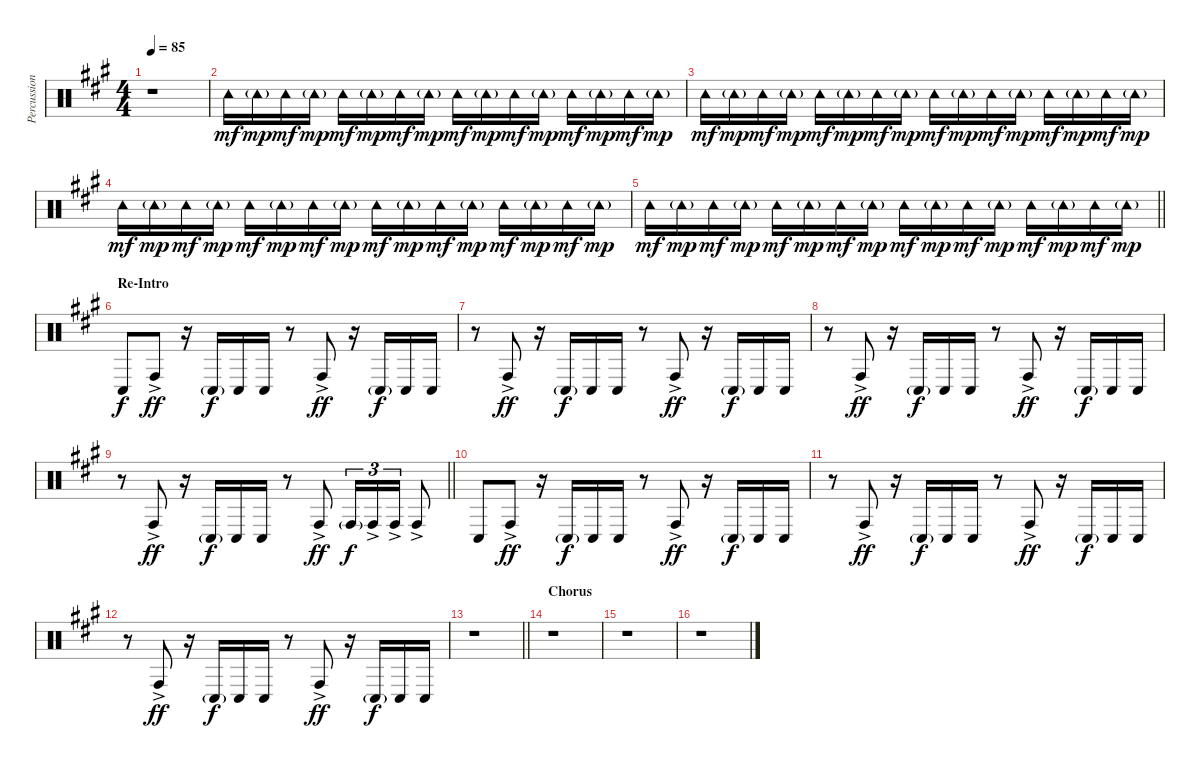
\track ("Percussion" "Percussion") {instrument percussion}
\staff {score}
\articulation defaults
\ts (4 4)
\tempo 85
\clef neutral
\ks a
r.1{dy mp} |
"Tambourine (hit)".16{dy mf} "Tambourine (hit)"{g}.16{dy mp} "Tambourine (hit)".16{dy mf} "Tambourine (hit)"{g}.16{dy mp} "Tambourine (hit)".16{dy mf} "Tambourine (hit)"{g}.16{dy mp} "Tambourine (hit)".16{dy mf} "Tambourine (hit)"{g}.16{dy mp} "Tambourine (hit)".16{dy mf} "Tambourine (hit)"{g}.16{dy mp} "Tambourine (hit)".16{dy mf} "Tambourine (hit)"{g}.16{dy mp} "Tambourine (hit)".16{dy mf} "Tambourine (hit)"{g}.16{dy mp} "Tambourine (hit)".16{dy mf} "Tambourine (hit)"{g}.16{dy mp} |
"Tambourine (hit)".16{dy mf} "Tambourine (hit)"{g}.16{dy mp} "Tambourine (hit)".16{dy mf} "Tambourine (hit)"{g}.16{dy mp} "Tambourine (hit)".16{dy mf} "Tambourine (hit)"{g}.16{dy mp} "Tambourine (hit)".16{dy mf} "Tambourine (hit)"{g}.16{dy mp} "Tambourine (hit)".16{dy mf} "Tambourine (hit)"{g}.16{dy mp} "Tambourine (hit)".16{dy mf} "Tambourine (hit)"{g}.16{dy mp} "Tambourine (hit)".16{dy mf} "Tambourine (hit)"{g}.16{dy mp} "Tambourine (hit)".16{dy mf} "Tambourine (hit)"{g}.16{dy mp} |
"Tambourine (hit)".16{dy mf} "Tambourine (hit)"{g}.16{dy mp} "Tambourine (hit)".16{dy mf} "Tambourine (hit)"{g}.16{dy mp} "Tambourine (hit)".16{dy mf} "Tambourine (hit)"{g}.16{dy mp} "Tambourine (hit)".16{dy mf} "Tambourine (hit)"{g}.16{dy mp} "Tambourine (hit)".16{dy mf} "Tambourine (hit)"{g}.16{dy mp} "Tambourine (hit)".16{dy mf} "Tambourine (hit)"{g}.16{dy mp} "Tambourine (hit)".16{dy mf} "Tambourine (hit)"{g}.16{dy mp} "Tambourine (hit)".16{dy mf} "Tambourine (hit)"{g}.16{dy mp} |
\barLineRight lightlight "Tambourine (hit)".16{dy mf} "Tambourine (hit)"{g}.16{dy mp} "Tambourine (hit)".16{dy mf} "Tambourine (hit)"{g}.16{dy mp} "Tambourine (hit)".16{dy mf} "Tambourine (hit)"{g}.16{dy mp} "Tambourine (hit)".16{dy mf} "Tambourine (hit)"{g}.16{dy mp} "Tambourine (hit)".16{dy mf} "Tambourine (hit)"{g}.16{dy mp} "Tambourine (hit)".16{dy mf} "Tambourine (hit)"{g}.16{dy mp} "Tambourine (hit)".16{dy mf} "Tambourine (hit)"{g}.16{dy mp} "Tambourine (hit)".16{dy mf} "Tambourine (hit)"{g}.16{dy mp}
|
\section ("" "Re-Intro")
"Conga low (hit)".8{dy f} "Conga high (hit)"{ac}.8{dy ff} r.16 "Conga low (hit)"{g}.16{dy f} "Conga low (hit)".16 "Conga low (hit)".16 r.8 "Conga high (hit)"{ac}.8{dy ff} r.16 "Conga low (hit)"{g}.16{dy f} "Conga low (hit)".16 "Conga low (hit)".16 |
r.8 "Conga high (hit)"{ac}.8{dy ff} r.16 "Conga low (hit)"{g}.16{dy f} "Conga low (hit)".16 "Conga low (hit)".16 r.8 "Conga high (hit)"{ac}.8{dy ff} r.16 "Conga low (hit)"{g}.16{dy f} "Conga low (hit)".16 "Conga low (hit)".16 |
r.8 "Conga high (hit)"{ac}.8{dy ff} r.16 "Conga low (hit)"{g}.16{dy f} "Conga low (hit)".16 "Conga low (hit)".16 r.8 "Conga high (hit)"{ac}.8{dy ff} r.16 "Conga low (hit)"{g}.16{dy f} "Conga low (hit)".16 "Conga low (hit)".16 |
\barLineRight lightlight
r.8 "Conga high (hit)"{ac}.8{dy ff} r.16 "Conga low (hit)"{g}.16{dy f} "Conga low (hit)".16 "Conga low (hit)".16 r.8 "Conga high (hit)"{ac}.8{dy ff} "Conga high (hit)"{g}.16{tu (3 2) dy f} "Conga high (hit)"{ac}.16{tu (3 2)} "Conga high (hit)"{ac}.16{tu (3 2)} "Conga high (hit)"{ac}.8 |
"Conga low (hit)".8 "Conga high (hit)"{ac}.8{dy ff} r.16 "Conga low (hit)"{g}.16{dy f} "Conga low (hit)".16 "Conga low (hit)".16 r.8 "Conga high (hit)"{ac}.8{dy ff} r.16 "Conga low (hit)"{g}.16{dy f} "Conga low (hit)".16 "Conga low (hit)".16 |
r.8 "Conga high (hit)"{ac}.8{dy ff} r.16 "Conga low (hit)"{g}.16{dy f} "Conga low (hit)".16 "Conga low (hit)".16 r.8 "Conga high (hit)"{ac}.8{dy ff} r.16 "Conga low (hit)"{g}.16{dy f} "Conga low (hit)".16 "Conga low (hit)".16 |
r.8 "Conga high (hit)"{ac}.8{dy ff} r.16 "Conga low (hit)"{g}.16{dy f} "Conga low (hit)".16 "Conga low (hit)".16 r.8 "Conga high (hit)"{ac}.8{dy ff} r.16 "Conga low (hit)"{g}.16{dy f} "Conga low (hit)".16 "Conga low (hit)".16 |
\barLineRight lightlight
r.1 |
\section ("" "Chorus")
r.1 |
r.1 |
r.1
